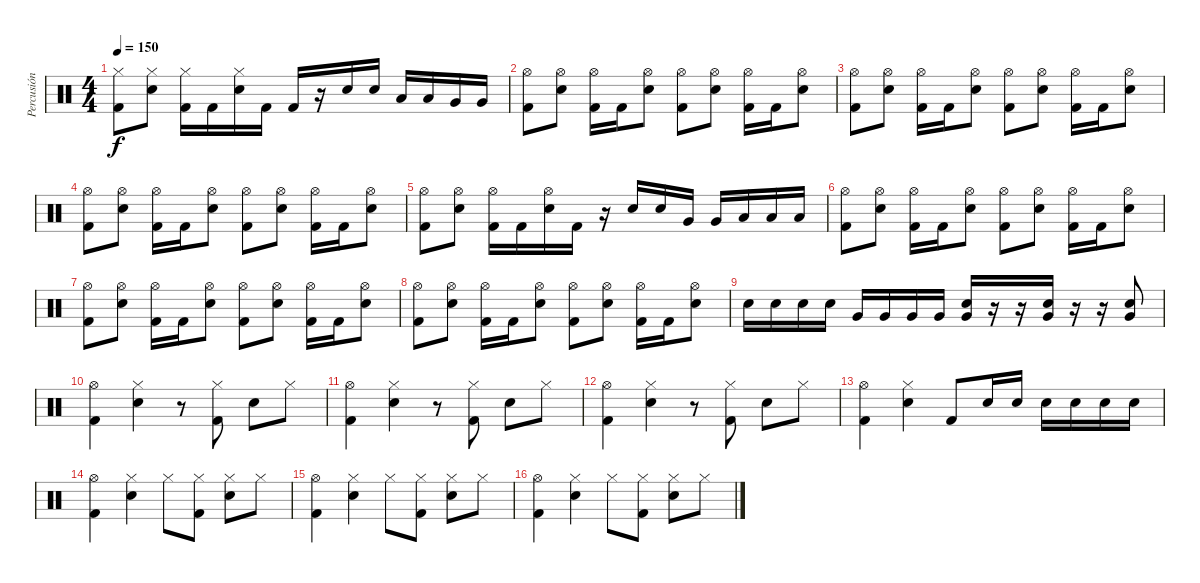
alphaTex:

\track ("Percusión" "Percusión") {instrument percussion}
\staff {score}
\articulation defaults
\ts (4 4)
\tempo 150
\clef neutral
\ks c
("Hi-Hat (closed)" "Kick (hit) 2").8{dy f} ("Hi-Hat (closed)" "Electric Snare (hit)").8 ("Hi-Hat (closed)" "Kick (hit) 2").16 "Kick (hit) 2".16 ("Hi-Hat (closed)" "Electric Snare (hit)").16 "Kick (hit) 2".16 "Kick (hit) 2".16 r.16 "Electric Snare (hit)".16 "Electric Snare (hit)".16 "Low Tom (hit)".16 "Low Tom (hit)".16 "Very Low Tom (hit)".16 "Very Low Tom (hit)".16 |
("Hi-Hat (open)" "Kick (hit) 2").8 ("Hi-Hat (open)" "Electric Snare (hit)").8 ("Hi-Hat (open)" "Kick (hit) 2").16 "Kick (hit) 2".16 ("Hi-Hat (open)" "Electric Snare (hit)").8 ("Hi-Hat (open)" "Kick (hit) 2").8 ("Hi-Hat (open)" "Electric Snare (hit)").8 ("Hi-Hat (open)" "Kick (hit) 2").16 "Kick (hit) 2".16 ("Hi-Hat (open)" "Electric Snare (hit)").8 |
("Hi-Hat (open)" "Kick (hit) 2").8 ("Hi-Hat (open)" "Electric Snare (hit)").8 ("Hi-Hat (open)" "Kick (hit) 2").16 "Kick (hit) 2".16 ("Hi-Hat (open)" "Electric Snare (hit)").8 ("Hi-Hat (open)" "Kick (hit) 2").8 ("Hi-Hat (open)" "Electric Snare (hit)").8 ("Hi-Hat (open)" "Kick (hit) 2").16 "Kick (hit) 2".16 ("Hi-Hat (open)" "Electric Snare (hit)").8 |
("Hi-Hat (open)" "Kick (hit) 2").8 ("Hi-Hat (open)" "Electric Snare (hit)").8 ("Hi-Hat (open)" "Kick (hit) 2").16 "Kick (hit) 2".16 ("Hi-Hat (open)" "Electric Snare (hit)").8 ("Hi-Hat (open)" "Kick (hit) 2").8 ("Hi-Hat (open)" "Electric Snare (hit)").8 ("Hi-Hat (open)" "Kick (hit) 2").16 "Kick (hit) 2".16 ("Hi-Hat (open)" "Electric Snare (hit)").8 |
("Hi-Hat (open)" "Kick (hit) 2").8 ("Hi-Hat (open)" "Electric Snare (hit)").8 ("Hi-Hat (open)" "Kick (hit) 2").16 "Kick (hit) 2".16 ("Hi-Hat (open)" "Electric Snare (hit)").16 "Kick (hit) 2".16 r.16 "Electric Snare (hit)".16 "Electric Snare (hit)".16 "Very Low Tom (hit)".16 "Very Low Tom (hit)".16 "Low Tom (hit)".16 "Low Tom (hit)".16 "Low Tom (hit)".16 |
("Hi-Hat (open)" "Kick (hit) 2").8 ("Hi-Hat (open)" "Electric Snare (hit)").8 ("Hi-Hat (open)" "Kick (hit) 2").16 "Kick (hit) 2".16 ("Hi-Hat (open)" "Electric Snare (hit)").8 ("Hi-Hat (open)" "Kick (hit) 2").8 ("Hi-Hat (open)" "Electric Snare (hit)").8 ("Hi-Hat (open)" "Kick (hit) 2").16 "Kick (hit) 2".16 ("Hi-Hat (open)" "Electric Snare (hit)").8 |
("Hi-Hat (open)" "Kick (hit) 2").8 ("Hi-Hat (open)" "Electric Snare (hit)").8 ("Hi-Hat (open)" "Kick (hit) 2").16 "Kick (hit) 2".16 ("Hi-Hat (open)" "Electric Snare (hit)").8 ("Hi-Hat (open)" "Kick (hit) 2").8 ("Hi-Hat (open)" "Electric Snare (hit)").8 ("Hi-Hat (open)" "Kick (hit) 2").16 "Kick (hit) 2".16 ("Hi-Hat (open)" "Electric Snare (hit)").8 |
("Hi-Hat (open)" "Kick (hit) 2").8 ("Hi-Hat (open)" "Electric Snare (hit)").8 ("Hi-Hat (open)" "Kick (hit) 2").16 "Kick (hit) 2".16 ("Hi-Hat (open)" "Electric Snare (hit)").8 ("Hi-Hat (open)" "Kick (hit) 2").8 ("Hi-Hat (open)" "Electric Snare (hit)").8 ("Hi-Hat (open)" "Kick (hit) 2").16 "Kick (hit) 2".16 ("Hi-Hat (open)" "Electric Snare (hit)").8 |
"Electric Snare (hit)".16 "Electric Snare (hit)".16 "Electric Snare (hit)".16 "Electric Snare (hit)".16 "Very Low Tom (hit)".16 "Very Low Tom (hit)".16 "Very Low Tom (hit)".16 "Very Low Tom (hit)".16 ("Very Low Tom (hit)" "Electric Snare (hit)").16 r.16 r.16 ("Very Low Tom (hit)" "Electric Snare (hit)").16 r.16 r.16 ("Very Low Tom (hit)" "Electric Snare (hit)").8 |
("Hi-Hat (open)" "Kick (hit) 2").4 ("Hi-Hat (closed)" "Electric Snare (hit)").4 r.8 ("Hi-Hat (closed)" "Kick (hit) 2").8 "Electric Snare (hit)".8 "Hi-Hat (closed)".8 |
("Hi-Hat (open)" "Kick (hit) 2").4 ("Hi-Hat (closed)" "Electric Snare (hit)").4 r.8 ("Hi-Hat (closed)" "Kick (hit) 2").8 "Electric Snare (hit)".8 "Hi-Hat (closed)".8 |
("Hi-Hat (open)" "Kick (hit) 2").4 ("Hi-Hat (closed)" "Electric Snare (hit)").4 r.8 ("Hi-Hat (closed)" "Kick (hit) 2").8 "Electric Snare (hit)".8 "Hi-Hat (closed)".8 |
("Hi-Hat (open)" "Kick (hit) 2").4 ("Hi-Hat (closed)" "Electric Snare (hit)").4 "Kick (hit) 2".8 "Electric Snare (hit)".16 "Electric Snare (hit)".16 "Electric Snare (hit)".16 "Electric Snare (hit)".16 "Electric Snare (hit)".16 "Electric Snare (hit)".16 |
("Hi-Hat (open)" "Kick (hit) 2").4 ("Hi-Hat (closed)" "Electric Snare (hit)").4 "Hi-Hat (closed)".8 ("Hi-Hat (closed)" "Kick (hit) 2").8 ("Hi-Hat (closed)" "Electric Snare (hit)").8 "Hi-Hat (closed)".8 |
("Hi-Hat (open)" "Kick (hit) 2").4 ("Hi-Hat (closed)" "Electric Snare (hit)").4 "Hi-Hat (closed)".8 ("Hi-Hat (closed)" "Kick (hit) 2").8 ("Hi-Hat (closed)" "Electric Snare (hit)").8 "Hi-Hat (closed)".8 |
("Hi-Hat (open)" "Kick (hit) 2").4 ("Hi-Hat (closed)" "Electric Snare (hit)").4 "Hi-Hat (closed)".8 ("Hi-Hat (closed)" "Kick (hit) 2").8 ("Hi-Hat (closed)" "Electric Snare (hit)").8 "Hi-Hat (closed)".8
